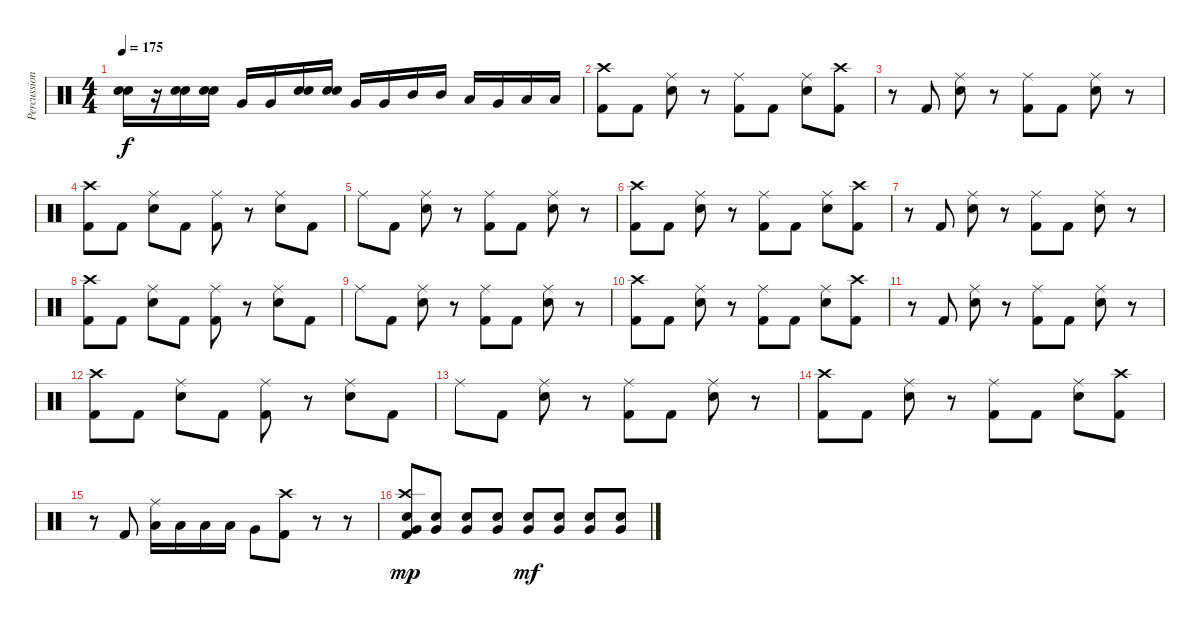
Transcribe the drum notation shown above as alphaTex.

\track ("Percussion" "Percussion") {instrument percussion}
\staff {score}
\articulation defaults
\ts (4 4)
\tempo 175
\clef neutral
\ks c
("Snare (hit) 2" "Electric Snare (hit)").16{dy f} r.16 ("Snare (hit) 2" "Electric Snare (hit)").16 ("Snare (hit) 2" "Electric Snare (hit)").16 "Very Low Tom (hit)".16 "Very Low Tom (hit)".16 ("Snare (hit) 2" "Electric Snare (hit)").16 ("Snare (hit) 2" "Electric Snare (hit)").16 "Very Low Tom (hit)".16 "Very Low Tom (hit)".16 "Mid Tom (hit)".16 "Mid Tom (hit)".16 "Low Tom (hit)".16 "Very Low Tom (hit)".16 "Low Floor Tom (hit)".16 "Low Floor Tom (hit)".16 |
("Crash high (hit)" "Kick (hit) 2").8 "Kick (hit) 2".8 ("Ride (middle)" "Snare (hit) 2").8 r.8 ("Ride (middle)" "Kick (hit) 2").8 "Kick (hit) 2".8 ("Ride (middle)" "Snare (hit) 2").8 ("Crash high (hit)" "Kick (hit) 2").8 |
r.8 "Kick (hit) 2".8 ("Ride (middle)" "Snare (hit) 2").8 r.8 ("Ride (middle)" "Kick (hit) 2").8 "Kick (hit) 2".8 ("Ride (middle)" "Snare (hit) 2").8 r.8 |
("Crash high (hit)" "Kick (hit) 2").8 "Kick (hit) 2".8 ("Ride (middle)" "Snare (hit) 2").8 "Kick (hit) 2".8 ("Ride (middle)" "Kick (hit) 2").8 r.8 ("Ride (middle)" "Snare (hit) 2").8 "Kick (hit) 2".8 |
"Ride (middle)".8 "Kick (hit) 2".8 ("Ride (middle)" "Snare (hit) 2").8 r.8 ("Ride (middle)" "Kick (hit) 2").8 "Kick (hit) 2".8 ("Ride (middle)" "Snare (hit) 2").8 r.8 |
("Crash high (hit)" "Kick (hit) 2").8 "Kick (hit) 2".8 ("Ride (middle)" "Snare (hit) 2").8 r.8 ("Ride (middle)" "Kick (hit) 2").8 "Kick (hit) 2".8 ("Ride (middle)" "Snare (hit) 2").8 ("Crash high (hit)" "Kick (hit) 2").8 |
r.8 "Kick (hit) 2".8 ("Ride (middle)" "Snare (hit) 2").8 r.8 ("Ride (middle)" "Kick (hit) 2").8 "Kick (hit) 2".8 ("Ride (middle)" "Snare (hit) 2").8 r.8 |
("Crash high (hit)" "Kick (hit) 2").8 "Kick (hit) 2".8 ("Ride (middle)" "Snare (hit) 2").8 "Kick (hit) 2".8 ("Ride (middle)" "Kick (hit) 2").8 r.8 ("Ride (middle)" "Snare (hit) 2").8 "Kick (hit) 2".8 |
"Ride (middle)".8 "Kick (hit) 2".8 ("Ride (middle)" "Snare (hit) 2").8 r.8 ("Ride (middle)" "Kick (hit) 2").8 "Kick (hit) 2".8 ("Ride (middle)" "Snare (hit) 2").8 r.8 |
("Crash high (hit)" "Kick (hit) 2").8 "Kick (hit) 2".8 ("Ride (middle)" "Snare (hit) 2").8 r.8 ("Ride (middle)" "Kick (hit) 2").8 "Kick (hit) 2".8 ("Ride (middle)" "Snare (hit) 2").8 ("Crash high (hit)" "Kick (hit) 2").8 |
r.8 "Kick (hit) 2".8 ("Ride (middle)" "Snare (hit) 2").8 r.8 ("Ride (middle)" "Kick (hit) 2").8 "Kick (hit) 2".8 ("Ride (middle)" "Snare (hit) 2").8 r.8 |
("Crash high (hit)" "Kick (hit) 2").8 "Kick (hit) 2".8 ("Ride (middle)" "Snare (hit) 2").8 "Kick (hit) 2".8 ("Ride (middle)" "Kick (hit) 2").8 r.8 ("Ride (middle)" "Snare (hit) 2").8 "Kick (hit) 2".8 |
"Ride (middle)".8 "Kick (hit) 2".8 ("Ride (middle)" "Snare (hit) 2").8 r.8 ("Ride (middle)" "Kick (hit) 2").8 "Kick (hit) 2".8 ("Ride (middle)" "Snare (hit) 2").8 r.8 |
("Crash high (hit)" "Kick (hit) 2").8 "Kick (hit) 2".8 ("Ride (middle)" "Snare (hit) 2").8 r.8 ("Ride (middle)" "Kick (hit) 2").8 "Kick (hit) 2".8 ("Ride (middle)" "Snare (hit) 2").8 ("Crash high (hit)" "Kick (hit) 2").8 |
r.8 "Kick (hit) 2".8 ("Ride (middle)" "Low Tom (hit)").16 "Low Tom (hit)".16 "Low Tom (hit)".16 "Low Tom (hit)".16 "Very Low Tom (hit)".8 ("Crash high (hit)" "Kick (hit) 2").8 r.8 r.8 |
("Crash high (hit)" "Snare (hit) 2" "Very Low Tom (hit)" "Kick (hit) 2").8{dy mp} ("Snare (hit) 2" "Very Low Tom (hit)").8 ("Snare (hit) 2" "Very Low Tom (hit)").8 ("Snare (hit) 2" "Very Low Tom (hit)").8 ("Snare (hit) 2" "Very Low Tom (hit)").8{dy mf} ("Snare (hit) 2" "Very Low Tom (hit)").8 ("Snare (hit) 2" "Very Low Tom (hit)").8 ("Snare (hit) 2" "Very Low Tom (hit)").8
